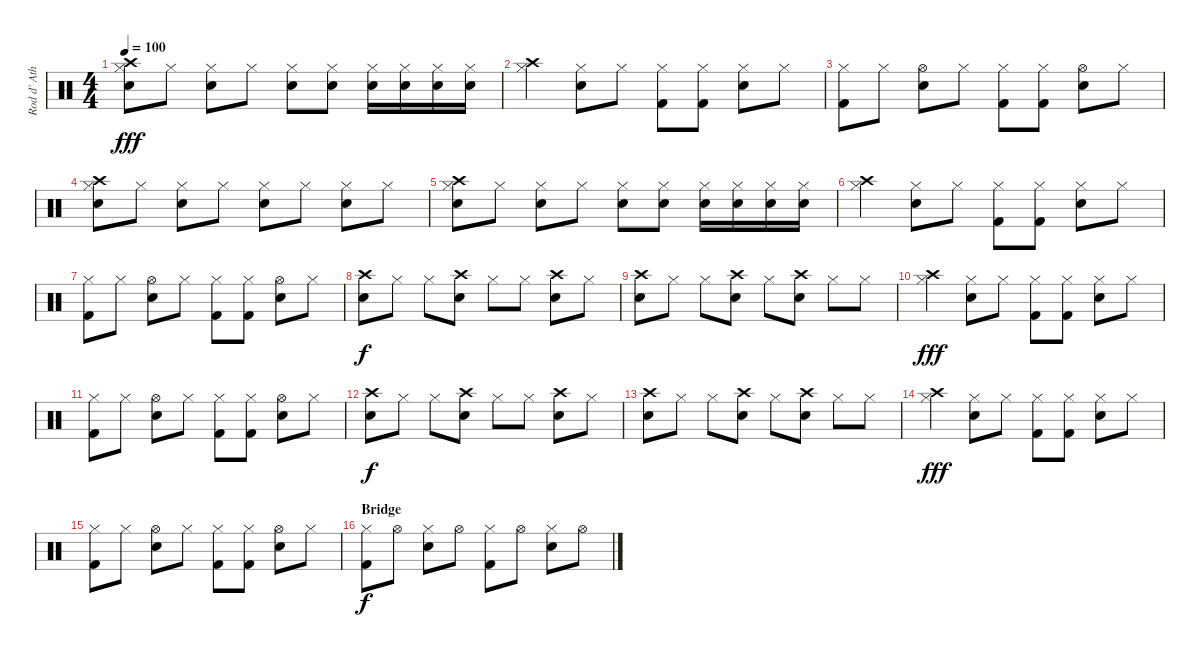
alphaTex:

\track ("Rod d' Ath" "Rod d' Ath") {instrument percussion}
\staff {score}
\articulation defaults
\ts (4 4)
\tempo 100
\clef neutral
\ks c
("Snare (hit) 2" "Hi-Hat (closed)" "Crash high (hit)").8{dy fff} "Hi-Hat (closed)".8 ("Snare (hit) 2" "Hi-Hat (closed)").8 "Hi-Hat (closed)".8 ("Snare (hit) 2" "Hi-Hat (closed)").8 ("Snare (hit) 2" "Hi-Hat (closed)").8 ("Snare (hit) 2" "Hi-Hat (closed)").16 ("Snare (hit) 2" "Hi-Hat (closed)").16 ("Snare (hit) 2" "Hi-Hat (closed)").16 ("Snare (hit) 2" "Hi-Hat (closed)").16 |
("Crash high (hit)" "Hi-Hat (closed)").4 ("Snare (hit) 2" "Hi-Hat (closed)").8 "Hi-Hat (closed)".8 ("Kick (hit) 2" "Hi-Hat (closed)").8 ("Kick (hit) 2" "Hi-Hat (closed)").8 ("Snare (hit) 2" "Hi-Hat (closed)").8 "Hi-Hat (closed)".8 |
("Kick (hit) 2" "Hi-Hat (closed)").8 "Hi-Hat (closed)".8 ("Hi-Hat (open)" "Snare (hit) 2").8 "Hi-Hat (closed)".8 ("Kick (hit) 2" "Hi-Hat (closed)").8 ("Kick (hit) 2" "Hi-Hat (closed)").8 ("Snare (hit) 2" "Hi-Hat (open)").8 "Hi-Hat (closed)".8 |
("Snare (hit) 2" "Hi-Hat (closed)" "Crash high (hit)").8{volume 16} "Hi-Hat (closed)".8 ("Snare (hit) 2" "Hi-Hat (closed)").8 "Hi-Hat (closed)".8 ("Snare (hit) 2" "Hi-Hat (closed)").8 "Hi-Hat (closed)".8 ("Snare (hit) 2" "Hi-Hat (closed)").8 "Hi-Hat (closed)".8 |
("Snare (hit) 2" "Hi-Hat (closed)" "Crash high (hit)").8 "Hi-Hat (closed)".8 ("Snare (hit) 2" "Hi-Hat (closed)").8 "Hi-Hat (closed)".8 ("Snare (hit) 2" "Hi-Hat (closed)").8 ("Snare (hit) 2" "Hi-Hat (closed)").8 ("Snare (hit) 2" "Hi-Hat (closed)").16 ("Snare (hit) 2" "Hi-Hat (closed)").16 ("Snare (hit) 2" "Hi-Hat (closed)").16 ("Snare (hit) 2" "Hi-Hat (closed)").16 |
("Crash high (hit)" "Hi-Hat (closed)").4 ("Snare (hit) 2" "Hi-Hat (closed)").8 "Hi-Hat (closed)".8 ("Kick (hit) 2" "Hi-Hat (closed)").8 ("Kick (hit) 2" "Hi-Hat (closed)").8 ("Snare (hit) 2" "Hi-Hat (closed)").8 "Hi-Hat (closed)".8 |
("Kick (hit) 2" "Hi-Hat (closed)").8 "Hi-Hat (closed)".8 ("Hi-Hat (open)" "Snare (hit) 2").8 "Hi-Hat (closed)".8 ("Kick (hit) 2" "Hi-Hat (closed)").8 ("Kick (hit) 2" "Hi-Hat (closed)").8 ("Snare (hit) 2" "Hi-Hat (open)").8 "Hi-Hat (closed)".8 |
("Snare (hit) 2" "Crash high (hit)").8{dy f} "Hi-Hat (closed)".8 "Hi-Hat (closed)".8 ("Snare (hit) 2" "Crash high (hit)").8 "Hi-Hat (closed)".8 "Hi-Hat (closed)".8 ("Snare (hit) 2" "Crash high (hit)").8 "Hi-Hat (closed)".8 |
("Snare (hit) 2" "Crash high (hit)").8 "Hi-Hat (closed)".8 "Hi-Hat (closed)".8 ("Snare (hit) 2" "Crash high (hit)").8 "Hi-Hat (closed)".8 ("Crash high (hit)" "Snare (hit) 2").8 "Hi-Hat (closed)".8 "Hi-Hat (closed)".8 |
("Crash high (hit)" "Hi-Hat (closed)").4{dy fff} ("Snare (hit) 2" "Hi-Hat (closed)").8 "Hi-Hat (closed)".8 ("Kick (hit) 2" "Hi-Hat (closed)").8 ("Kick (hit) 2" "Hi-Hat (closed)").8 ("Snare (hit) 2" "Hi-Hat (closed)").8 "Hi-Hat (closed)".8 |
("Kick (hit) 2" "Hi-Hat (closed)").8 "Hi-Hat (closed)".8 ("Hi-Hat (open)" "Snare (hit) 2").8 "Hi-Hat (closed)".8 ("Kick (hit) 2" "Hi-Hat (closed)").8 ("Kick (hit) 2" "Hi-Hat (closed)").8 ("Snare (hit) 2" "Hi-Hat (open)").8 "Hi-Hat (closed)".8 |
("Snare (hit) 2" "Crash high (hit)").8{dy f} "Hi-Hat (closed)".8 "Hi-Hat (closed)".8 ("Snare (hit) 2" "Crash high (hit)").8 "Hi-Hat (closed)".8 "Hi-Hat (closed)".8 ("Snare (hit) 2" "Crash high (hit)").8 "Hi-Hat (closed)".8 |
("Snare (hit) 2" "Crash high (hit)").8 "Hi-Hat (closed)".8 "Hi-Hat (closed)".8 ("Snare (hit) 2" "Crash high (hit)").8 "Hi-Hat (closed)".8 ("Crash high (hit)" "Snare (hit) 2").8 "Hi-Hat (closed)".8 "Hi-Hat (closed)".8 |
("Crash high (hit)" "Hi-Hat (closed)").4{dy fff} ("Snare (hit) 2" "Hi-Hat (closed)").8 "Hi-Hat (closed)".8 ("Kick (hit) 2" "Hi-Hat (closed)").8 ("Kick (hit) 2" "Hi-Hat (closed)").8 ("Snare (hit) 2" "Hi-Hat (closed)").8 "Hi-Hat (closed)".8 |
("Kick (hit) 2" "Hi-Hat (closed)").8 "Hi-Hat (closed)".8 ("Hi-Hat (open)" "Snare (hit) 2").8 "Hi-Hat (closed)".8 ("Kick (hit) 2" "Hi-Hat (closed)").8 ("Kick (hit) 2" "Hi-Hat (closed)").8 ("Snare (hit) 2" "Hi-Hat (open)").8 "Hi-Hat (closed)".8 |
\section ("" "Bridge")
("Kick (hit) 2" "Hi-Hat (closed)").8{dy f} "Hi-Hat (open)".8 ("Snare (hit) 2" "Hi-Hat (closed)").8 "Hi-Hat (open)".8 ("Kick (hit) 2" "Hi-Hat (closed)").8 "Hi-Hat (open)".8 ("Snare (hit) 2" "Hi-Hat (closed)").8 "Hi-Hat (open)".8
